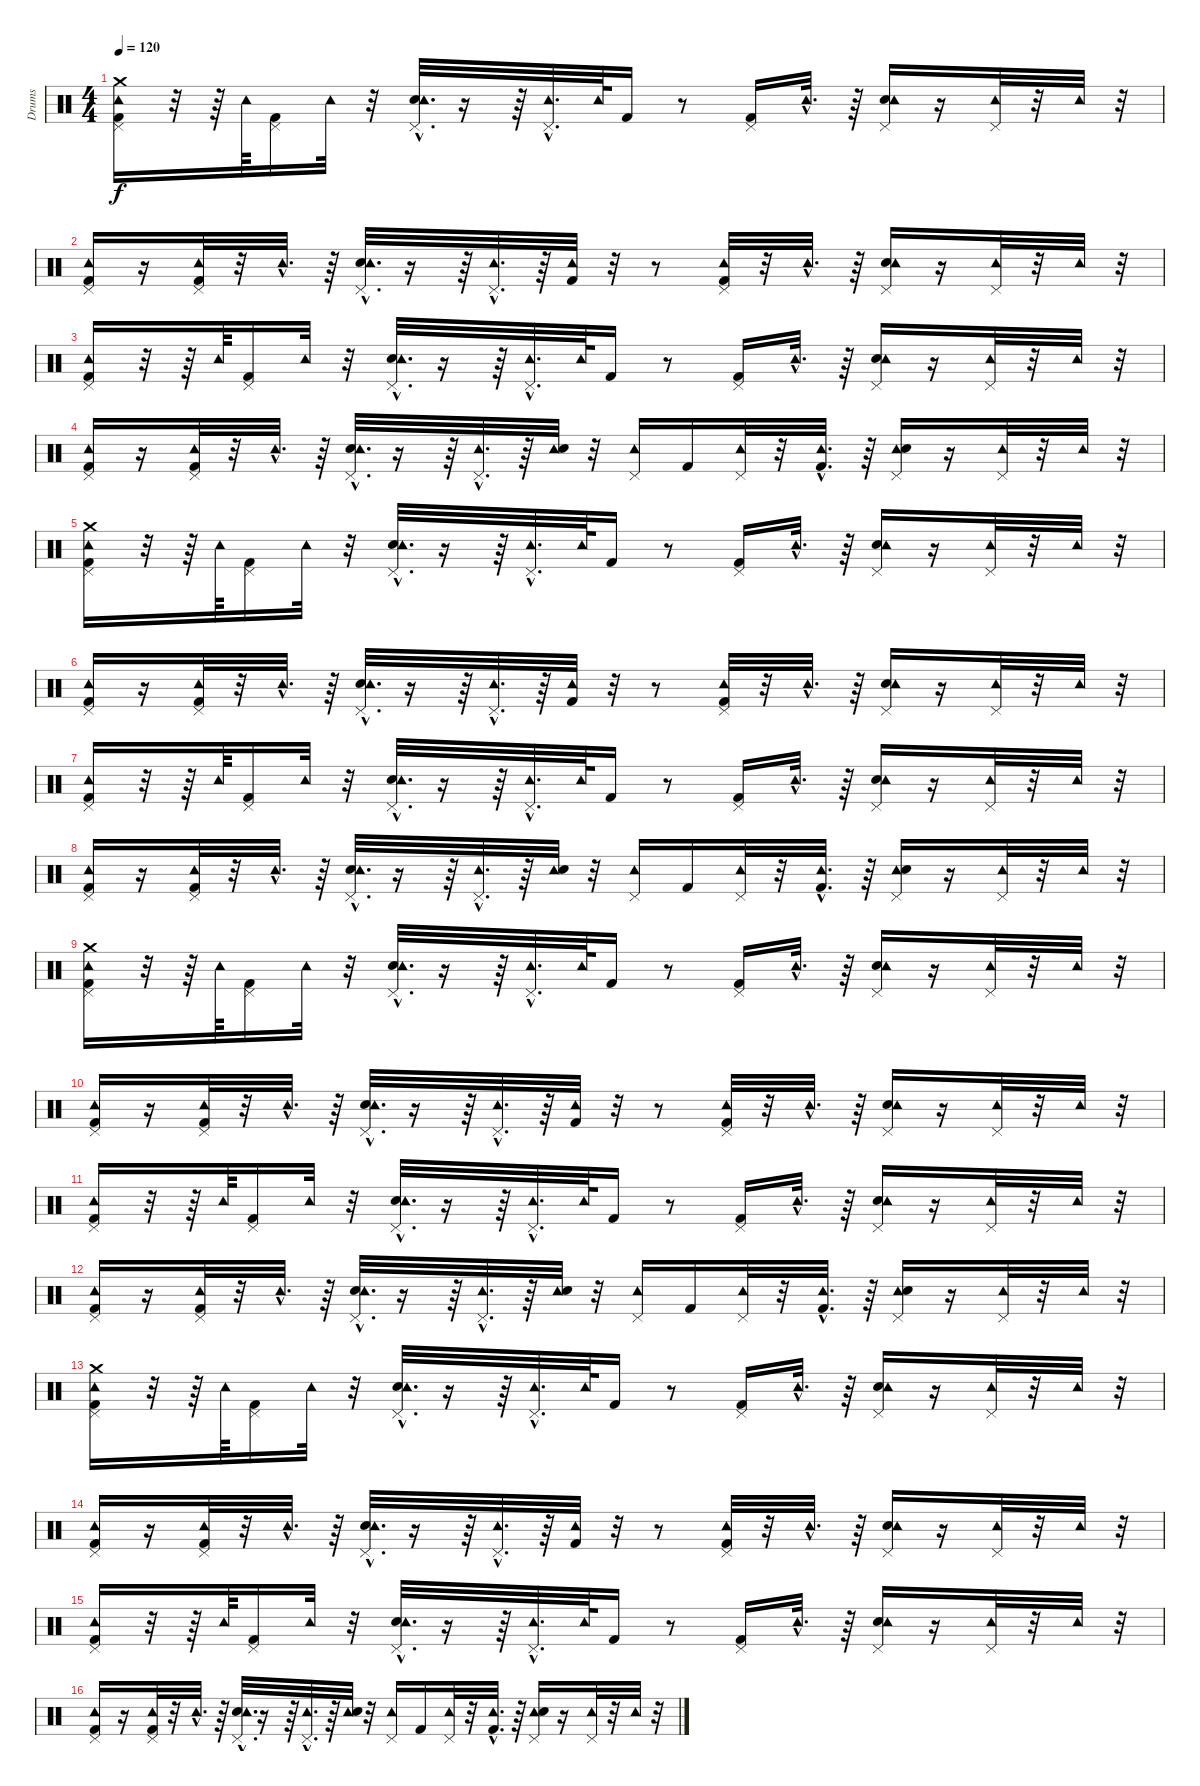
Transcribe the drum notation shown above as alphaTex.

\track ("Drums" "Drums") {instrument percussion}
\staff {score}
\articulation defaults
\ts (4 4)
\tempo 120
\clef neutral
\ks c
("Tambourine (hit)" "Pedal Hi-Hat (hit)" "Kick (hit) 2" "Crash medium (hit)").16{dy f} r.32 r.64 "Tambourine (hit)".64 ("Kick (hit) 2" "Pedal Hi-Hat (hit)").16 "Tambourine (hit)".32 r.32 ("Electric Snare (hit)"{hac} "Pedal Hi-Hat (hit)"{hac} "Tambourine (hit)"{hac}).32{d} r.16 r.64 ("Pedal Hi-Hat (hit)"{hac} "Tambourine (hit)"{hac}).32{d} "Tambourine (hit)".64 "Kick (hit) 2".16 r.8 ("Kick (hit) 2" "Pedal Hi-Hat (hit)").16 "Tambourine (hit)"{hac}.32{d} r.64 ("Electric Snare (hit)" "Pedal Hi-Hat (hit)" "Tambourine (hit)").16 r.16 ("Pedal Hi-Hat (hit)" "Tambourine (hit)").32 r.32 "Tambourine (hit)".32 r.32 |
("Kick (hit) 2" "Pedal Hi-Hat (hit)" "Tambourine (hit)").16 r.16 ("Kick (hit) 2" "Pedal Hi-Hat (hit)" "Tambourine (hit)").32 r.32 "Tambourine (hit)"{hac}.32{d} r.64 ("Electric Snare (hit)"{hac} "Pedal Hi-Hat (hit)"{hac} "Tambourine (hit)"{hac}).32{d} r.16 r.64 ("Pedal Hi-Hat (hit)"{hac} "Tambourine (hit)"{hac}).32{d} r.64 ("Kick (hit) 2" "Tambourine (hit)").32 r.32 r.8 ("Kick (hit) 2" "Pedal Hi-Hat (hit)" "Tambourine (hit)").32 r.32 "Tambourine (hit)"{hac}.32{d} r.64 ("Electric Snare (hit)" "Pedal Hi-Hat (hit)" "Tambourine (hit)").16 r.16 ("Pedal Hi-Hat (hit)" "Tambourine (hit)").32 r.32 "Tambourine (hit)".32 r.32 |
("Kick (hit) 2" "Pedal Hi-Hat (hit)" "Tambourine (hit)").16 r.32 r.64 "Tambourine (hit)".64 ("Kick (hit) 2" "Pedal Hi-Hat (hit)").16 "Tambourine (hit)".32 r.32 ("Electric Snare (hit)"{hac} "Pedal Hi-Hat (hit)"{hac} "Tambourine (hit)"{hac}).32{d} r.16 r.64 ("Pedal Hi-Hat (hit)"{hac} "Tambourine (hit)"{hac}).32{d} "Tambourine (hit)".64 "Kick (hit) 2".16 r.8 ("Kick (hit) 2" "Pedal Hi-Hat (hit)").16 "Tambourine (hit)"{hac}.32{d} r.64 ("Electric Snare (hit)" "Pedal Hi-Hat (hit)" "Tambourine (hit)").16 r.16 ("Pedal Hi-Hat (hit)" "Tambourine (hit)").32 r.32 "Tambourine (hit)".32 r.32 |
("Kick (hit) 2" "Pedal Hi-Hat (hit)" "Tambourine (hit)").16 r.16 ("Kick (hit) 2" "Pedal Hi-Hat (hit)" "Tambourine (hit)").32 r.32 "Tambourine (hit)"{hac}.32{d} r.64 ("Electric Snare (hit)"{hac} "Pedal Hi-Hat (hit)"{hac} "Tambourine (hit)"{hac}).32{d} r.16 r.64 ("Pedal Hi-Hat (hit)"{hac} "Tambourine (hit)"{hac}).32{d} r.64 ("Tambourine (hit)" "Electric Snare (hit)").32 r.32 ("Pedal Hi-Hat (hit)" "Tambourine (hit)").16 "Kick (hit) 2".16 ("Pedal Hi-Hat (hit)" "Tambourine (hit)").32 r.32 ("Tambourine (hit)"{hac} "Kick (hit) 2"{hac}).32{d} r.64 ("Pedal Hi-Hat (hit)" "Tambourine (hit)" "Electric Snare (hit)").16 r.16 ("Pedal Hi-Hat (hit)" "Tambourine (hit)").32 r.32 "Tambourine (hit)".32 r.32 |
("Tambourine (hit)" "Pedal Hi-Hat (hit)" "Kick (hit) 2" "Crash medium (hit)").16 r.32 r.64 "Tambourine (hit)".64 ("Kick (hit) 2" "Pedal Hi-Hat (hit)").16 "Tambourine (hit)".32 r.32 ("Electric Snare (hit)"{hac} "Pedal Hi-Hat (hit)"{hac} "Tambourine (hit)"{hac}).32{d} r.16 r.64 ("Pedal Hi-Hat (hit)"{hac} "Tambourine (hit)"{hac}).32{d} "Tambourine (hit)".64 "Kick (hit) 2".16 r.8 ("Kick (hit) 2" "Pedal Hi-Hat (hit)").16 "Tambourine (hit)"{hac}.32{d} r.64 ("Electric Snare (hit)" "Pedal Hi-Hat (hit)" "Tambourine (hit)").16 r.16 ("Pedal Hi-Hat (hit)" "Tambourine (hit)").32 r.32 "Tambourine (hit)".32 r.32 |
("Kick (hit) 2" "Pedal Hi-Hat (hit)" "Tambourine (hit)").16 r.16 ("Kick (hit) 2" "Pedal Hi-Hat (hit)" "Tambourine (hit)").32 r.32 "Tambourine (hit)"{hac}.32{d} r.64 ("Electric Snare (hit)"{hac} "Pedal Hi-Hat (hit)"{hac} "Tambourine (hit)"{hac}).32{d} r.16 r.64 ("Pedal Hi-Hat (hit)"{hac} "Tambourine (hit)"{hac}).32{d} r.64 ("Kick (hit) 2" "Tambourine (hit)").32 r.32 r.8 ("Kick (hit) 2" "Pedal Hi-Hat (hit)" "Tambourine (hit)").32 r.32 "Tambourine (hit)"{hac}.32{d} r.64 ("Electric Snare (hit)" "Pedal Hi-Hat (hit)" "Tambourine (hit)").16 r.16 ("Pedal Hi-Hat (hit)" "Tambourine (hit)").32 r.32 "Tambourine (hit)".32 r.32 |
("Kick (hit) 2" "Pedal Hi-Hat (hit)" "Tambourine (hit)").16 r.32 r.64 "Tambourine (hit)".64 ("Kick (hit) 2" "Pedal Hi-Hat (hit)").16 "Tambourine (hit)".32 r.32 ("Electric Snare (hit)"{hac} "Pedal Hi-Hat (hit)"{hac} "Tambourine (hit)"{hac}).32{d} r.16 r.64 ("Pedal Hi-Hat (hit)"{hac} "Tambourine (hit)"{hac}).32{d} "Tambourine (hit)".64 "Kick (hit) 2".16 r.8 ("Kick (hit) 2" "Pedal Hi-Hat (hit)").16 "Tambourine (hit)"{hac}.32{d} r.64 ("Electric Snare (hit)" "Pedal Hi-Hat (hit)" "Tambourine (hit)").16 r.16 ("Pedal Hi-Hat (hit)" "Tambourine (hit)").32 r.32 "Tambourine (hit)".32 r.32 |
("Kick (hit) 2" "Pedal Hi-Hat (hit)" "Tambourine (hit)").16 r.16 ("Kick (hit) 2" "Pedal Hi-Hat (hit)" "Tambourine (hit)").32 r.32 "Tambourine (hit)"{hac}.32{d} r.64 ("Electric Snare (hit)"{hac} "Pedal Hi-Hat (hit)"{hac} "Tambourine (hit)"{hac}).32{d} r.16 r.64 ("Pedal Hi-Hat (hit)"{hac} "Tambourine (hit)"{hac}).32{d} r.64 ("Tambourine (hit)" "Electric Snare (hit)").32 r.32 ("Pedal Hi-Hat (hit)" "Tambourine (hit)").16 "Kick (hit) 2".16 ("Pedal Hi-Hat (hit)" "Tambourine (hit)").32 r.32 ("Tambourine (hit)"{hac} "Kick (hit) 2"{hac}).32{d} r.64 ("Pedal Hi-Hat (hit)" "Tambourine (hit)" "Electric Snare (hit)").16 r.16 ("Pedal Hi-Hat (hit)" "Tambourine (hit)").32 r.32 "Tambourine (hit)".32 r.32 |
("Tambourine (hit)" "Pedal Hi-Hat (hit)" "Kick (hit) 2" "Crash medium (hit)").16 r.32 r.64 "Tambourine (hit)".64 ("Kick (hit) 2" "Pedal Hi-Hat (hit)").16 "Tambourine (hit)".32 r.32 ("Electric Snare (hit)"{hac} "Pedal Hi-Hat (hit)"{hac} "Tambourine (hit)"{hac}).32{d} r.16 r.64 ("Pedal Hi-Hat (hit)"{hac} "Tambourine (hit)"{hac}).32{d} "Tambourine (hit)".64 "Kick (hit) 2".16 r.8 ("Kick (hit) 2" "Pedal Hi-Hat (hit)").16 "Tambourine (hit)"{hac}.32{d} r.64 ("Electric Snare (hit)" "Pedal Hi-Hat (hit)" "Tambourine (hit)").16 r.16 ("Pedal Hi-Hat (hit)" "Tambourine (hit)").32 r.32 "Tambourine (hit)".32 r.32 |
("Kick (hit) 2" "Pedal Hi-Hat (hit)" "Tambourine (hit)").16 r.16 ("Kick (hit) 2" "Pedal Hi-Hat (hit)" "Tambourine (hit)").32 r.32 "Tambourine (hit)"{hac}.32{d} r.64 ("Electric Snare (hit)"{hac} "Pedal Hi-Hat (hit)"{hac} "Tambourine (hit)"{hac}).32{d} r.16 r.64 ("Pedal Hi-Hat (hit)"{hac} "Tambourine (hit)"{hac}).32{d} r.64 ("Kick (hit) 2" "Tambourine (hit)").32 r.32 r.8 ("Kick (hit) 2" "Pedal Hi-Hat (hit)" "Tambourine (hit)").32 r.32 "Tambourine (hit)"{hac}.32{d} r.64 ("Electric Snare (hit)" "Pedal Hi-Hat (hit)" "Tambourine (hit)").16 r.16 ("Pedal Hi-Hat (hit)" "Tambourine (hit)").32 r.32 "Tambourine (hit)".32 r.32 |
("Kick (hit) 2" "Pedal Hi-Hat (hit)" "Tambourine (hit)").16 r.32 r.64 "Tambourine (hit)".64 ("Kick (hit) 2" "Pedal Hi-Hat (hit)").16 "Tambourine (hit)".32 r.32 ("Electric Snare (hit)"{hac} "Pedal Hi-Hat (hit)"{hac} "Tambourine (hit)"{hac}).32{d} r.16 r.64 ("Pedal Hi-Hat (hit)"{hac} "Tambourine (hit)"{hac}).32{d} "Tambourine (hit)".64 "Kick (hit) 2".16 r.8 ("Kick (hit) 2" "Pedal Hi-Hat (hit)").16 "Tambourine (hit)"{hac}.32{d} r.64 ("Electric Snare (hit)" "Pedal Hi-Hat (hit)" "Tambourine (hit)").16 r.16 ("Pedal Hi-Hat (hit)" "Tambourine (hit)").32 r.32 "Tambourine (hit)".32 r.32 |
("Kick (hit) 2" "Pedal Hi-Hat (hit)" "Tambourine (hit)").16 r.16 ("Kick (hit) 2" "Pedal Hi-Hat (hit)" "Tambourine (hit)").32 r.32 "Tambourine (hit)"{hac}.32{d} r.64 ("Electric Snare (hit)"{hac} "Pedal Hi-Hat (hit)"{hac} "Tambourine (hit)"{hac}).32{d} r.16 r.64 ("Pedal Hi-Hat (hit)"{hac} "Tambourine (hit)"{hac}).32{d} r.64 ("Tambourine (hit)" "Electric Snare (hit)").32 r.32 ("Pedal Hi-Hat (hit)" "Tambourine (hit)").16 "Kick (hit) 2".16 ("Pedal Hi-Hat (hit)" "Tambourine (hit)").32 r.32 ("Tambourine (hit)"{hac} "Kick (hit) 2"{hac}).32{d} r.64 ("Pedal Hi-Hat (hit)" "Tambourine (hit)" "Electric Snare (hit)").16 r.16 ("Pedal Hi-Hat (hit)" "Tambourine (hit)").32 r.32 "Tambourine (hit)".32 r.32 |
("Tambourine (hit)" "Pedal Hi-Hat (hit)" "Kick (hit) 2" "Crash medium (hit)").16 r.32 r.64 "Tambourine (hit)".64 ("Kick (hit) 2" "Pedal Hi-Hat (hit)").16 "Tambourine (hit)".32 r.32 ("Electric Snare (hit)"{hac} "Pedal Hi-Hat (hit)"{hac} "Tambourine (hit)"{hac}).32{d} r.16 r.64 ("Pedal Hi-Hat (hit)"{hac} "Tambourine (hit)"{hac}).32{d} "Tambourine (hit)".64 "Kick (hit) 2".16 r.8 ("Kick (hit) 2" "Pedal Hi-Hat (hit)").16 "Tambourine (hit)"{hac}.32{d} r.64 ("Electric Snare (hit)" "Pedal Hi-Hat (hit)" "Tambourine (hit)").16 r.16 ("Pedal Hi-Hat (hit)" "Tambourine (hit)").32 r.32 "Tambourine (hit)".32 r.32 |
("Kick (hit) 2" "Pedal Hi-Hat (hit)" "Tambourine (hit)").16 r.16 ("Kick (hit) 2" "Pedal Hi-Hat (hit)" "Tambourine (hit)").32 r.32 "Tambourine (hit)"{hac}.32{d} r.64 ("Electric Snare (hit)"{hac} "Pedal Hi-Hat (hit)"{hac} "Tambourine (hit)"{hac}).32{d} r.16 r.64 ("Pedal Hi-Hat (hit)"{hac} "Tambourine (hit)"{hac}).32{d} r.64 ("Kick (hit) 2" "Tambourine (hit)").32 r.32 r.8 ("Kick (hit) 2" "Pedal Hi-Hat (hit)" "Tambourine (hit)").32 r.32 "Tambourine (hit)"{hac}.32{d} r.64 ("Electric Snare (hit)" "Pedal Hi-Hat (hit)" "Tambourine (hit)").16 r.16 ("Pedal Hi-Hat (hit)" "Tambourine (hit)").32 r.32 "Tambourine (hit)".32 r.32 |
("Kick (hit) 2" "Pedal Hi-Hat (hit)" "Tambourine (hit)").16 r.32 r.64 "Tambourine (hit)".64 ("Kick (hit) 2" "Pedal Hi-Hat (hit)").16 "Tambourine (hit)".32 r.32 ("Electric Snare (hit)"{hac} "Pedal Hi-Hat (hit)"{hac} "Tambourine (hit)"{hac}).32{d} r.16 r.64 ("Pedal Hi-Hat (hit)"{hac} "Tambourine (hit)"{hac}).32{d} "Tambourine (hit)".64 "Kick (hit) 2".16 r.8 ("Kick (hit) 2" "Pedal Hi-Hat (hit)").16 "Tambourine (hit)"{hac}.32{d} r.64 ("Electric Snare (hit)" "Pedal Hi-Hat (hit)" "Tambourine (hit)").16 r.16 ("Pedal Hi-Hat (hit)" "Tambourine (hit)").32 r.32 "Tambourine (hit)".32 r.32 |
("Kick (hit) 2" "Pedal Hi-Hat (hit)" "Tambourine (hit)").16 r.16 ("Kick (hit) 2" "Pedal Hi-Hat (hit)" "Tambourine (hit)").32 r.32 "Tambourine (hit)"{hac}.32{d} r.64 ("Electric Snare (hit)"{hac} "Pedal Hi-Hat (hit)"{hac} "Tambourine (hit)"{hac}).32{d} r.16 r.64 ("Pedal Hi-Hat (hit)"{hac} "Tambourine (hit)"{hac}).32{d} r.64 ("Tambourine (hit)" "Electric Snare (hit)").32 r.32 ("Pedal Hi-Hat (hit)" "Tambourine (hit)").16 "Kick (hit) 2".16 ("Pedal Hi-Hat (hit)" "Tambourine (hit)").32 r.32 ("Tambourine (hit)"{hac} "Kick (hit) 2"{hac}).32{d} r.64 ("Pedal Hi-Hat (hit)" "Tambourine (hit)" "Electric Snare (hit)").16 r.16 ("Pedal Hi-Hat (hit)" "Tambourine (hit)").32 r.32 "Tambourine (hit)".32 r.32
